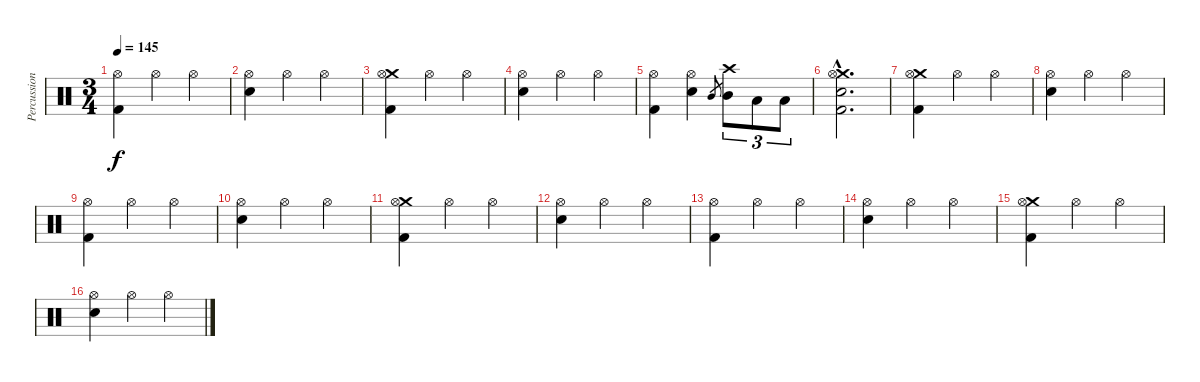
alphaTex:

\track ("Percussion" "Percussion") {instrument percussion}
\staff {score}
\articulation defaults
\ts (3 4)
\tempo 145
\clef neutral
\ks c
("Hi-Hat (open)" "Kick (hit) 2").4{dy f} "Hi-Hat (open)".4 "Hi-Hat (open)".4 |
("Hi-Hat (open)" "Electric Snare (hit)").4 "Hi-Hat (open)".4 "Hi-Hat (open)".4 |
("Crash medium (hit)" "Hi-Hat (open)" "Kick (hit) 2").4 "Hi-Hat (open)".4 "Hi-Hat (open)".4 |
("Hi-Hat (open)" "Electric Snare (hit)").4 "Hi-Hat (open)".4 "Hi-Hat (open)".4 |
("Hi-Hat (open)" "Kick (hit) 2").4 ("Hi-Hat (open)" "Electric Snare (hit)").4 "Mid Tom (hit)".8{gr} ("Crash high (hit)" "Mid Tom (hit)").8{tu (3 2)} "Low Tom (hit)".8{tu (3 2)} "Low Floor Tom (hit)".8{tu (3 2)} |
("Crash medium (hit)"{hac} "Hi-Hat (open)"{hac} "Electric Snare (hit)"{hac} "Kick (hit) 2"{hac}).2{d} |
("Crash medium (hit)" "Hi-Hat (open)" "Kick (hit) 2").4 "Hi-Hat (open)".4 "Hi-Hat (open)".4 |
("Hi-Hat (open)" "Electric Snare (hit)").4 "Hi-Hat (open)".4 "Hi-Hat (open)".4 |
("Hi-Hat (open)" "Kick (hit) 2").4 "Hi-Hat (open)".4 "Hi-Hat (open)".4 |
("Hi-Hat (open)" "Electric Snare (hit)").4 "Hi-Hat (open)".4 "Hi-Hat (open)".4 |
("Crash medium (hit)" "Hi-Hat (open)" "Kick (hit) 2").4 "Hi-Hat (open)".4 "Hi-Hat (open)".4 |
("Hi-Hat (open)" "Electric Snare (hit)").4 "Hi-Hat (open)".4 "Hi-Hat (open)".4 |
("Hi-Hat (open)" "Kick (hit) 2").4 "Hi-Hat (open)".4 "Hi-Hat (open)".4 |
("Hi-Hat (open)" "Electric Snare (hit)").4 "Hi-Hat (open)".4 "Hi-Hat (open)".4 |
("Crash medium (hit)" "Hi-Hat (open)" "Kick (hit) 2").4 "Hi-Hat (open)".4 "Hi-Hat (open)".4 |
("Hi-Hat (open)" "Electric Snare (hit)").4 "Hi-Hat (open)".4 "Hi-Hat (open)".4
